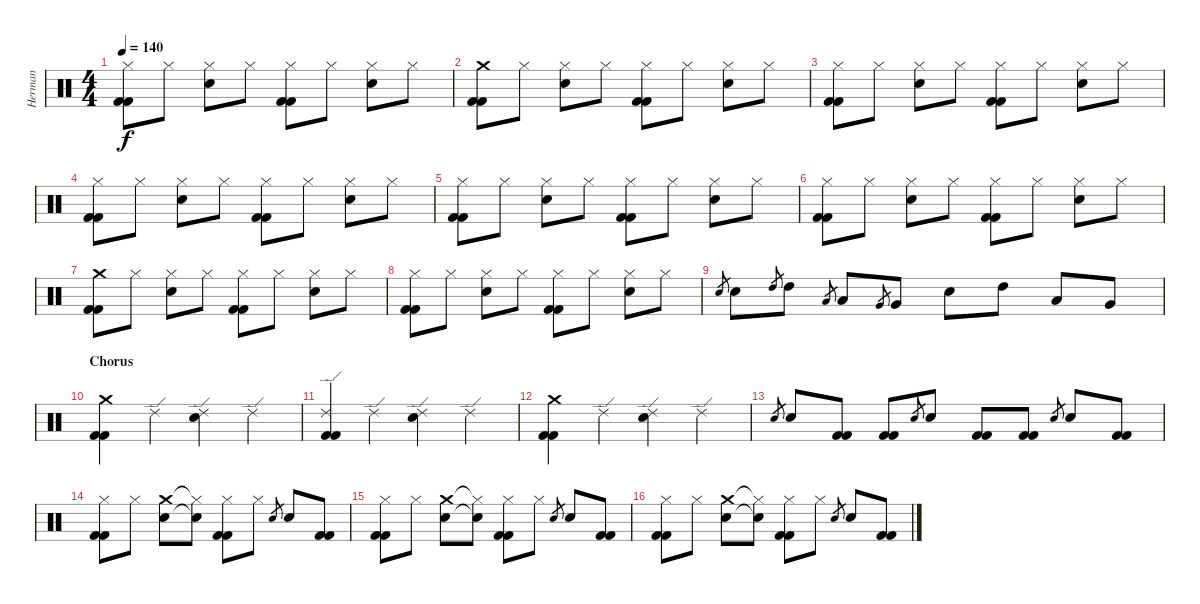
\track ("Herman" "Herman") {instrument percussion}
\staff {score}
\articulation defaults
\ts (4 4)
\tempo 140
\clef neutral
\ks c
("Hi-Hat (closed)" "Kick (hit) 2" "Kick (hit) 2").8{dy f} "Hi-Hat (closed)".8 ("Hi-Hat (closed)" "Electric Snare (hit)").8 "Hi-Hat (closed)".8 ("Kick (hit) 2" "Kick (hit) 2" "Hi-Hat (closed)").8 "Hi-Hat (closed)".8 ("Hi-Hat (closed)" "Electric Snare (hit)").8 "Hi-Hat (closed)".8 |
("Crash medium (hit)" "Kick (hit) 2" "Kick (hit) 2").8 "Hi-Hat (closed)".8 ("Hi-Hat (closed)" "Electric Snare (hit)").8 "Hi-Hat (closed)".8 ("Kick (hit) 2" "Kick (hit) 2" "Hi-Hat (closed)").8 "Hi-Hat (closed)".8 ("Hi-Hat (closed)" "Electric Snare (hit)").8 "Hi-Hat (closed)".8 |
("Hi-Hat (closed)" "Kick (hit) 2" "Kick (hit) 2").8 "Hi-Hat (closed)".8 ("Hi-Hat (closed)" "Electric Snare (hit)").8 "Hi-Hat (closed)".8 ("Kick (hit) 2" "Kick (hit) 2" "Hi-Hat (closed)").8 "Hi-Hat (closed)".8 ("Hi-Hat (closed)" "Electric Snare (hit)").8 "Hi-Hat (closed)".8 |
("Hi-Hat (closed)" "Kick (hit) 2" "Kick (hit) 2").8 "Hi-Hat (closed)".8 ("Hi-Hat (closed)" "Electric Snare (hit)").8 "Hi-Hat (closed)".8 ("Kick (hit) 2" "Kick (hit) 2" "Hi-Hat (closed)").8 "Hi-Hat (closed)".8 ("Hi-Hat (closed)" "Electric Snare (hit)").8 "Hi-Hat (closed)".8 |
("Hi-Hat (closed)" "Kick (hit) 2" "Kick (hit) 2").8 "Hi-Hat (closed)".8 ("Hi-Hat (closed)" "Electric Snare (hit)").8 "Hi-Hat (closed)".8 ("Kick (hit) 2" "Kick (hit) 2" "Hi-Hat (closed)").8 "Hi-Hat (closed)".8 ("Hi-Hat (closed)" "Electric Snare (hit)").8 "Hi-Hat (closed)".8 |
("Hi-Hat (closed)" "Kick (hit) 2" "Kick (hit) 2").8 "Hi-Hat (closed)".8 ("Hi-Hat (closed)" "Electric Snare (hit)").8 "Hi-Hat (closed)".8 ("Kick (hit) 2" "Kick (hit) 2" "Hi-Hat (closed)").8 "Hi-Hat (closed)".8 ("Hi-Hat (closed)" "Electric Snare (hit)").8 "Hi-Hat (closed)".8 |
("Crash medium (hit)" "Kick (hit) 2" "Kick (hit) 2").8 "Hi-Hat (closed)".8 ("Hi-Hat (closed)" "Electric Snare (hit)").8 "Hi-Hat (closed)".8 ("Kick (hit) 2" "Kick (hit) 2" "Hi-Hat (closed)").8 "Hi-Hat (closed)".8 ("Hi-Hat (closed)" "Electric Snare (hit)").8 "Hi-Hat (closed)".8 |
("Hi-Hat (closed)" "Kick (hit) 2" "Kick (hit) 2").8 "Hi-Hat (closed)".8 ("Hi-Hat (closed)" "Electric Snare (hit)").8 "Hi-Hat (closed)".8 ("Kick (hit) 2" "Kick (hit) 2" "Hi-Hat (closed)").8 "Hi-Hat (closed)".8 ("Hi-Hat (closed)" "Electric Snare (hit)").8 "Hi-Hat (closed)".8 |
"Electric Snare (hit)".8{gr} "Electric Snare (hit)".8 "High Tom (hit)".8{gr} "High Tom (hit)".8 "Low Tom (hit)".8{gr} "Low Tom (hit)".8 "Very Low Tom (hit)".8{gr} "Very Low Tom (hit)".8 "Electric Snare (hit)".8 "High Tom (hit)".8 "Low Tom (hit)".8 "Very Low Tom (hit)".8 |
\section ("" "Chorus")
("Crash medium (hit)" "Kick (hit) 2" "Kick (hit) 2").4 "Ride (edge) 2".4 ("Electric Snare (hit)" "Ride (edge) 2").4 "Ride (edge) 2".4 |
("Ride (edge) 2" "Kick (hit) 2" "Kick (hit) 2").4 "Ride (edge) 2".4 ("Electric Snare (hit)" "Ride (edge) 2").4 "Ride (edge) 2".4 |
("Crash medium (hit)" "Kick (hit) 2" "Kick (hit) 2").4 "Ride (edge) 2".4 ("Electric Snare (hit)" "Ride (edge) 2").4 "Ride (edge) 2".4 |
"Electric Snare (hit)".8{gr} "Electric Snare (hit)".8 ("Kick (hit) 2" "Kick (hit) 2").8 ("Kick (hit) 2" "Kick (hit) 2").8 "Electric Snare (hit)".8{gr} "Electric Snare (hit)".8 ("Kick (hit) 2" "Kick (hit) 2").8 ("Kick (hit) 2" "Kick (hit) 2").8 "Electric Snare (hit)".8{gr} "Electric Snare (hit)".8 ("Kick (hit) 2" "Kick (hit) 2").8 |
("Hi-Hat (closed)" "Kick (hit) 2" "Kick (hit) 2").8 "Hi-Hat (closed)".8 ("Electric Snare (hit)" "Crash medium (hit)").8 ("Snare (hit)"{t} "Hi-Hat (closed)"{t}).8 ("Hi-Hat (closed)" "Kick (hit) 2" "Kick (hit) 2").8 "Hi-Hat (closed)".8 "Electric Snare (hit)".8{gr} "Electric Snare (hit)".8 ("Kick (hit) 2" "Kick (hit) 2").8 |
("Hi-Hat (closed)" "Kick (hit) 2" "Kick (hit) 2").8 "Hi-Hat (closed)".8 ("Electric Snare (hit)" "Crash medium (hit)").8 ("Snare (hit)"{t} "Hi-Hat (closed)"{t}).8 ("Hi-Hat (closed)" "Kick (hit) 2" "Kick (hit) 2").8 "Hi-Hat (closed)".8 "Electric Snare (hit)".8{gr} "Electric Snare (hit)".8 ("Kick (hit) 2" "Kick (hit) 2").8 |
("Hi-Hat (closed)" "Kick (hit) 2" "Kick (hit) 2").8 "Hi-Hat (closed)".8 ("Electric Snare (hit)" "Crash medium (hit)").8 ("Snare (hit)"{t} "Hi-Hat (closed)"{t}).8 ("Hi-Hat (closed)" "Kick (hit) 2" "Kick (hit) 2").8 "Hi-Hat (closed)".8 "Electric Snare (hit)".8{gr} "Electric Snare (hit)".8 ("Kick (hit) 2" "Kick (hit) 2").8
